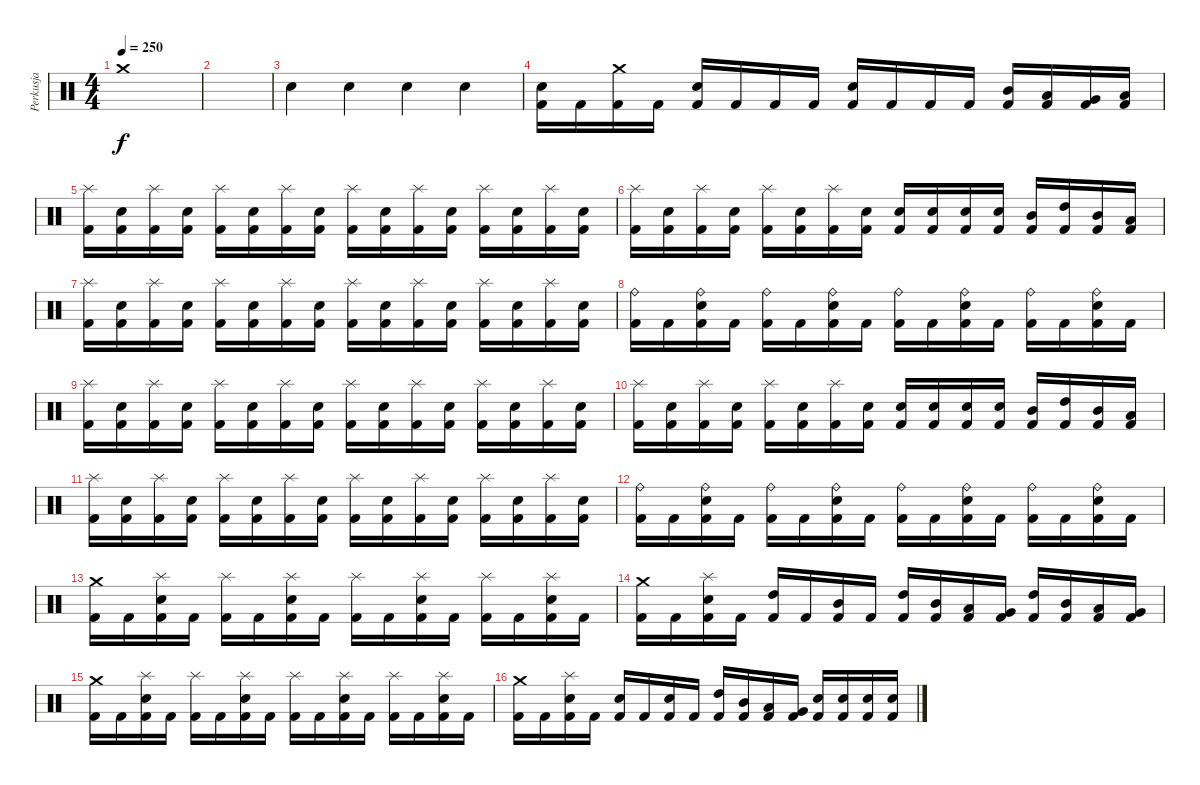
\track ("Perkusja" "Perkusja") {instrument percussion}
\staff {score}
\articulation defaults
\ts (4 4)
\tempo 250
\clef neutral
\ks c "Crash medium (hit)".1{dy f}
|
|
"Electric Snare (hit)".4 "Electric Snare (hit)".4 "Electric Snare (hit)".4 "Electric Snare (hit)".4 |
("Snare (hit) 2" "Kick (hit) 2").16 "Kick (hit) 2".16 ("Crash medium (hit)" "Kick (hit) 2").16 "Kick (hit) 2".16 ("Snare (hit) 2" "Kick (hit) 2").16 "Kick (hit) 2".16 "Kick (hit) 2".16 "Kick (hit) 2".16 ("Snare (hit) 2" "Kick (hit) 2").16 "Kick (hit) 2".16 "Kick (hit) 2".16 "Kick (hit) 2".16 ("Mid Tom (hit)" "Kick (hit) 2").16 ("Low Tom (hit)" "Kick (hit) 2").16 ("Very Low Tom (hit)" "Kick (hit) 2").16 ("Low Floor Tom (hit)" "Kick (hit) 2").16 |
("Splash (hit)" "Kick (hit) 2").16 ("Electric Snare (hit)" "Kick (hit) 2").16 ("Splash (hit)" "Kick (hit) 2").16 ("Electric Snare (hit)" "Kick (hit) 2").16 ("Splash (hit)" "Kick (hit) 2").16 ("Electric Snare (hit)" "Kick (hit) 2").16 ("Splash (hit)" "Kick (hit) 2").16 ("Electric Snare (hit)" "Kick (hit) 2").16 ("Splash (hit)" "Kick (hit) 2").16 ("Electric Snare (hit)" "Kick (hit) 2").16 ("Splash (hit)" "Kick (hit) 2").16 ("Electric Snare (hit)" "Kick (hit) 2").16 ("Splash (hit)" "Kick (hit) 2").16 ("Electric Snare (hit)" "Kick (hit) 2").16 ("Splash (hit)" "Kick (hit) 2").16 ("Electric Snare (hit)" "Kick (hit) 2").16 |
("Splash (hit)" "Kick (hit) 2").16 ("Electric Snare (hit)" "Kick (hit) 2").16 ("Splash (hit)" "Kick (hit) 2").16 ("Electric Snare (hit)" "Kick (hit) 2").16 ("Splash (hit)" "Kick (hit) 2").16 ("Electric Snare (hit)" "Kick (hit) 2").16 ("Splash (hit)" "Kick (hit) 2").16 ("Electric Snare (hit)" "Kick (hit) 2").16 ("Snare (hit) 2" "Kick (hit) 2").16 ("Snare (hit) 2" "Kick (hit) 2").16 ("Snare (hit) 2" "Kick (hit) 2").16 ("Snare (hit) 2" "Kick (hit) 2").16 ("Mid Tom (hit)" "Kick (hit) 2").16 ("High Tom (hit)" "Kick (hit) 2").16 ("Mid Tom (hit)" "Kick (hit) 2").16 ("Low Tom (hit)" "Kick (hit) 2").16 |
("Splash (hit)" "Kick (hit) 2").16 ("Electric Snare (hit)" "Kick (hit) 2").16 ("Splash (hit)" "Kick (hit) 2").16 ("Electric Snare (hit)" "Kick (hit) 2").16 ("Splash (hit)" "Kick (hit) 2").16 ("Electric Snare (hit)" "Kick (hit) 2").16 ("Splash (hit)" "Kick (hit) 2").16 ("Electric Snare (hit)" "Kick (hit) 2").16 ("Splash (hit)" "Kick (hit) 2").16 ("Electric Snare (hit)" "Kick (hit) 2").16 ("Splash (hit)" "Kick (hit) 2").16 ("Electric Snare (hit)" "Kick (hit) 2").16 ("Splash (hit)" "Kick (hit) 2").16 ("Electric Snare (hit)" "Kick (hit) 2").16 ("Splash (hit)" "Kick (hit) 2").16 ("Electric Snare (hit)" "Kick (hit) 2").16 |
("Ride (bell)" "Kick (hit) 2").16 "Kick (hit) 2".16 ("Ride (bell)" "Snare (hit) 2" "Kick (hit) 2").16 "Kick (hit) 2".16 ("Ride (bell)" "Kick (hit) 2").16 "Kick (hit) 2".16 ("Ride (bell)" "Snare (hit) 2" "Kick (hit) 2").16 "Kick (hit) 2".16 ("Ride (bell)" "Kick (hit) 2").16 "Kick (hit) 2".16 ("Ride (bell)" "Snare (hit) 2" "Kick (hit) 2").16 "Kick (hit) 2".16 ("Ride (bell)" "Kick (hit) 2").16 "Kick (hit) 2".16 ("Ride (bell)" "Snare (hit) 2" "Kick (hit) 2").16 "Kick (hit) 2".16 |
("Splash (hit)" "Kick (hit) 2").16 ("Electric Snare (hit)" "Kick (hit) 2").16 ("Splash (hit)" "Kick (hit) 2").16 ("Electric Snare (hit)" "Kick (hit) 2").16 ("Splash (hit)" "Kick (hit) 2").16 ("Electric Snare (hit)" "Kick (hit) 2").16 ("Splash (hit)" "Kick (hit) 2").16 ("Electric Snare (hit)" "Kick (hit) 2").16 ("Splash (hit)" "Kick (hit) 2").16 ("Electric Snare (hit)" "Kick (hit) 2").16 ("Splash (hit)" "Kick (hit) 2").16 ("Electric Snare (hit)" "Kick (hit) 2").16 ("Splash (hit)" "Kick (hit) 2").16 ("Electric Snare (hit)" "Kick (hit) 2").16 ("Splash (hit)" "Kick (hit) 2").16 ("Electric Snare (hit)" "Kick (hit) 2").16 |
("Splash (hit)" "Kick (hit) 2").16 ("Electric Snare (hit)" "Kick (hit) 2").16 ("Splash (hit)" "Kick (hit) 2").16 ("Electric Snare (hit)" "Kick (hit) 2").16 ("Splash (hit)" "Kick (hit) 2").16 ("Electric Snare (hit)" "Kick (hit) 2").16 ("Splash (hit)" "Kick (hit) 2").16 ("Electric Snare (hit)" "Kick (hit) 2").16 ("Snare (hit) 2" "Kick (hit) 2").16 ("Snare (hit) 2" "Kick (hit) 2").16 ("Snare (hit) 2" "Kick (hit) 2").16 ("Snare (hit) 2" "Kick (hit) 2").16 ("Mid Tom (hit)" "Kick (hit) 2").16 ("High Tom (hit)" "Kick (hit) 2").16 ("Mid Tom (hit)" "Kick (hit) 2").16 ("Low Tom (hit)" "Kick (hit) 2").16 |
("Splash (hit)" "Kick (hit) 2").16 ("Electric Snare (hit)" "Kick (hit) 2").16 ("Splash (hit)" "Kick (hit) 2").16 ("Electric Snare (hit)" "Kick (hit) 2").16 ("Splash (hit)" "Kick (hit) 2").16 ("Electric Snare (hit)" "Kick (hit) 2").16 ("Splash (hit)" "Kick (hit) 2").16 ("Electric Snare (hit)" "Kick (hit) 2").16 ("Splash (hit)" "Kick (hit) 2").16 ("Electric Snare (hit)" "Kick (hit) 2").16 ("Splash (hit)" "Kick (hit) 2").16 ("Electric Snare (hit)" "Kick (hit) 2").16 ("Splash (hit)" "Kick (hit) 2").16 ("Electric Snare (hit)" "Kick (hit) 2").16 ("Splash (hit)" "Kick (hit) 2").16 ("Electric Snare (hit)" "Kick (hit) 2").16 |
("Ride (bell)" "Kick (hit) 2").16 "Kick (hit) 2".16 ("Ride (bell)" "Snare (hit) 2" "Kick (hit) 2").16 "Kick (hit) 2".16 ("Ride (bell)" "Kick (hit) 2").16 "Kick (hit) 2".16 ("Ride (bell)" "Snare (hit) 2" "Kick (hit) 2").16 "Kick (hit) 2".16 ("Ride (bell)" "Kick (hit) 2").16 "Kick (hit) 2".16 ("Ride (bell)" "Snare (hit) 2" "Kick (hit) 2").16 "Kick (hit) 2".16 ("Ride (bell)" "Kick (hit) 2").16 "Kick (hit) 2".16 ("Ride (bell)" "Snare (hit) 2" "Kick (hit) 2").16 "Kick (hit) 2".16 |
("Crash medium (hit)" "Kick (hit) 2").16 "Kick (hit) 2".16 ("Splash (hit)" "Snare (hit) 2" "Kick (hit) 2").16 "Kick (hit) 2".16 ("Splash (hit)" "Kick (hit) 2").16 "Kick (hit) 2".16 ("Splash (hit)" "Snare (hit) 2" "Kick (hit) 2").16 "Kick (hit) 2".16 ("Splash (hit)" "Kick (hit) 2").16 "Kick (hit) 2".16 ("Splash (hit)" "Snare (hit) 2" "Kick (hit) 2").16 "Kick (hit) 2".16 ("Splash (hit)" "Kick (hit) 2").16 "Kick (hit) 2".16 ("Splash (hit)" "Snare (hit) 2" "Kick (hit) 2").16 "Kick (hit) 2".16 |
("Crash medium (hit)" "Kick (hit) 2").16 "Kick (hit) 2".16 ("Splash (hit)" "Snare (hit) 2" "Kick (hit) 2").16 "Kick (hit) 2".16 ("High Tom (hit)" "Kick (hit) 2").16 "Kick (hit) 2".16 ("Mid Tom (hit)" "Kick (hit) 2").16 "Kick (hit) 2".16 ("High Tom (hit)" "Kick (hit) 2").16 ("Mid Tom (hit)" "Kick (hit) 2").16 ("Low Tom (hit)" "Kick (hit) 2").16 ("Very Low Tom (hit)" "Kick (hit) 2").16 ("High Tom (hit)" "Kick (hit) 2").16 ("Mid Tom (hit)" "Kick (hit) 2").16 ("Low Tom (hit)" "Kick (hit) 2").16 ("Very Low Tom (hit)" "Kick (hit) 2").16 |
("Crash medium (hit)" "Kick (hit) 2").16 "Kick (hit) 2".16 ("Splash (hit)" "Snare (hit) 2" "Kick (hit) 2").16 "Kick (hit) 2".16 ("Splash (hit)" "Kick (hit) 2").16 "Kick (hit) 2".16 ("Splash (hit)" "Snare (hit) 2" "Kick (hit) 2").16 "Kick (hit) 2".16 ("Splash (hit)" "Kick (hit) 2").16 "Kick (hit) 2".16 ("Splash (hit)" "Snare (hit) 2" "Kick (hit) 2").16 "Kick (hit) 2".16 ("Splash (hit)" "Kick (hit) 2").16 "Kick (hit) 2".16 ("Splash (hit)" "Snare (hit) 2" "Kick (hit) 2").16 "Kick (hit) 2".16 |
("Crash medium (hit)" "Kick (hit) 2").16 "Kick (hit) 2".16 ("Splash (hit)" "Snare (hit) 2" "Kick (hit) 2").16 "Kick (hit) 2".16 ("Electric Snare (hit)" "Kick (hit) 2").16 "Kick (hit) 2".16 ("Electric Snare (hit)" "Kick (hit) 2").16 "Kick (hit) 2".16 ("High Tom (hit)" "Kick (hit) 2").16 ("Mid Tom (hit)" "Kick (hit) 2").16 ("Low Tom (hit)" "Kick (hit) 2").16 ("Very Low Tom (hit)" "Kick (hit) 2").16 ("Electric Snare (hit)" "Kick (hit) 2").16 ("Electric Snare (hit)" "Kick (hit) 2").16 ("Electric Snare (hit)" "Kick (hit) 2").16 ("Electric Snare (hit)" "Kick (hit) 2").16
